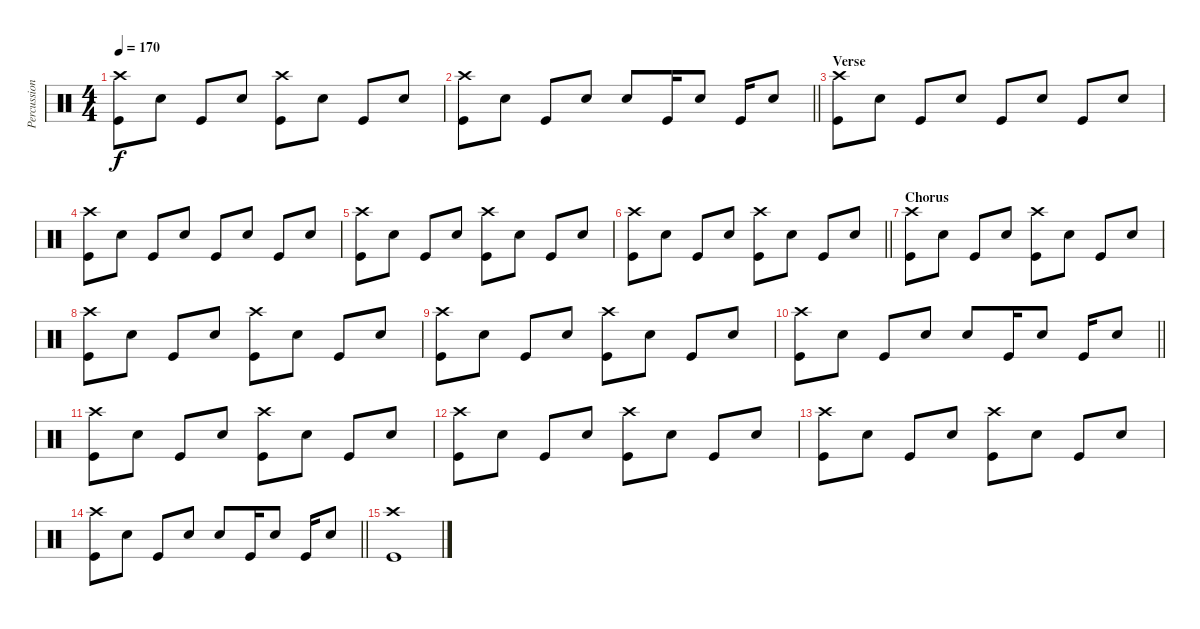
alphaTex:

\track ("Percussion" "Percussion") {instrument percussion}
\staff {score}
\articulation defaults
\ts (4 4)
\tempo 170
\clef neutral
\ks c
("Crash high (hit)" "Kick (hit)").8{dy f} "Snare (hit) 2".8 "Kick (hit)".8 "Snare (hit) 2".8 ("Crash high (hit)" "Kick (hit)").8 "Snare (hit) 2".8 "Kick (hit)".8 "Snare (hit) 2".8 |
\barLineRight lightlight
("Crash high (hit)" "Kick (hit)").8 "Snare (hit) 2".8 "Kick (hit)".8 "Snare (hit) 2".8 "Snare (hit) 2".8 "Kick (hit)".16 "Snare (hit) 2".8 "Kick (hit)".16 "Snare (hit) 2".8 |
\section ("" "Verse")
("Crash high (hit)" "Kick (hit)").8 "Snare (hit) 2".8 "Kick (hit)".8 "Snare (hit) 2".8 "Kick (hit)".8 "Snare (hit) 2".8 "Kick (hit)".8 "Snare (hit) 2".8 |
("Crash high (hit)" "Kick (hit)").8 "Snare (hit) 2".8 "Kick (hit)".8 "Snare (hit) 2".8 "Kick (hit)".8 "Snare (hit) 2".8 "Kick (hit)".8 "Snare (hit) 2".8 |
("Crash high (hit)" "Kick (hit)").8 "Snare (hit) 2".8 "Kick (hit)".8 "Snare (hit) 2".8 ("Crash high (hit)" "Kick (hit)").8 "Snare (hit) 2".8 "Kick (hit)".8 "Snare (hit) 2".8 |
\barLineRight lightlight
("Crash high (hit)" "Kick (hit)").8 "Snare (hit) 2".8 "Kick (hit)".8 "Snare (hit) 2".8 ("Crash high (hit)" "Kick (hit)").8 "Snare (hit) 2".8 "Kick (hit)".8 "Snare (hit) 2".8 |
\section ("" "Chorus")
("Crash high (hit)" "Kick (hit)").8 "Snare (hit) 2".8 "Kick (hit)".8 "Snare (hit) 2".8 ("Crash high (hit)" "Kick (hit)").8 "Snare (hit) 2".8 "Kick (hit)".8 "Snare (hit) 2".8 |
("Crash high (hit)" "Kick (hit)").8 "Snare (hit) 2".8 "Kick (hit)".8 "Snare (hit) 2".8 ("Crash high (hit)" "Kick (hit)").8 "Snare (hit) 2".8 "Kick (hit)".8 "Snare (hit) 2".8 |
("Crash high (hit)" "Kick (hit)").8 "Snare (hit) 2".8 "Kick (hit)".8 "Snare (hit) 2".8 ("Crash high (hit)" "Kick (hit)").8 "Snare (hit) 2".8 "Kick (hit)".8 "Snare (hit) 2".8 |
\barLineRight lightlight
("Crash high (hit)" "Kick (hit)").8 "Snare (hit) 2".8 "Kick (hit)".8 "Snare (hit) 2".8 "Snare (hit) 2".8 "Kick (hit)".16 "Snare (hit) 2".8 "Kick (hit)".16 "Snare (hit) 2".8 |
("Crash high (hit)" "Kick (hit)").8 "Snare (hit) 2".8 "Kick (hit)".8 "Snare (hit) 2".8 ("Crash high (hit)" "Kick (hit)").8 "Snare (hit) 2".8 "Kick (hit)".8 "Snare (hit) 2".8 |
("Crash high (hit)" "Kick (hit)").8 "Snare (hit) 2".8 "Kick (hit)".8 "Snare (hit) 2".8 ("Crash high (hit)" "Kick (hit)").8 "Snare (hit) 2".8 "Kick (hit)".8 "Snare (hit) 2".8 |
("Crash high (hit)" "Kick (hit)").8 "Snare (hit) 2".8 "Kick (hit)".8 "Snare (hit) 2".8 ("Crash high (hit)" "Kick (hit)").8 "Snare (hit) 2".8 "Kick (hit)".8 "Snare (hit) 2".8 |
\barLineRight lightlight
("Crash high (hit)" "Kick (hit)").8 "Snare (hit) 2".8 "Kick (hit)".8 "Snare (hit) 2".8 "Snare (hit) 2".8 "Kick (hit)".16 "Snare (hit) 2".8 "Kick (hit)".16 "Snare (hit) 2".8 |
("Kick (hit)" "Crash high (hit)").1
